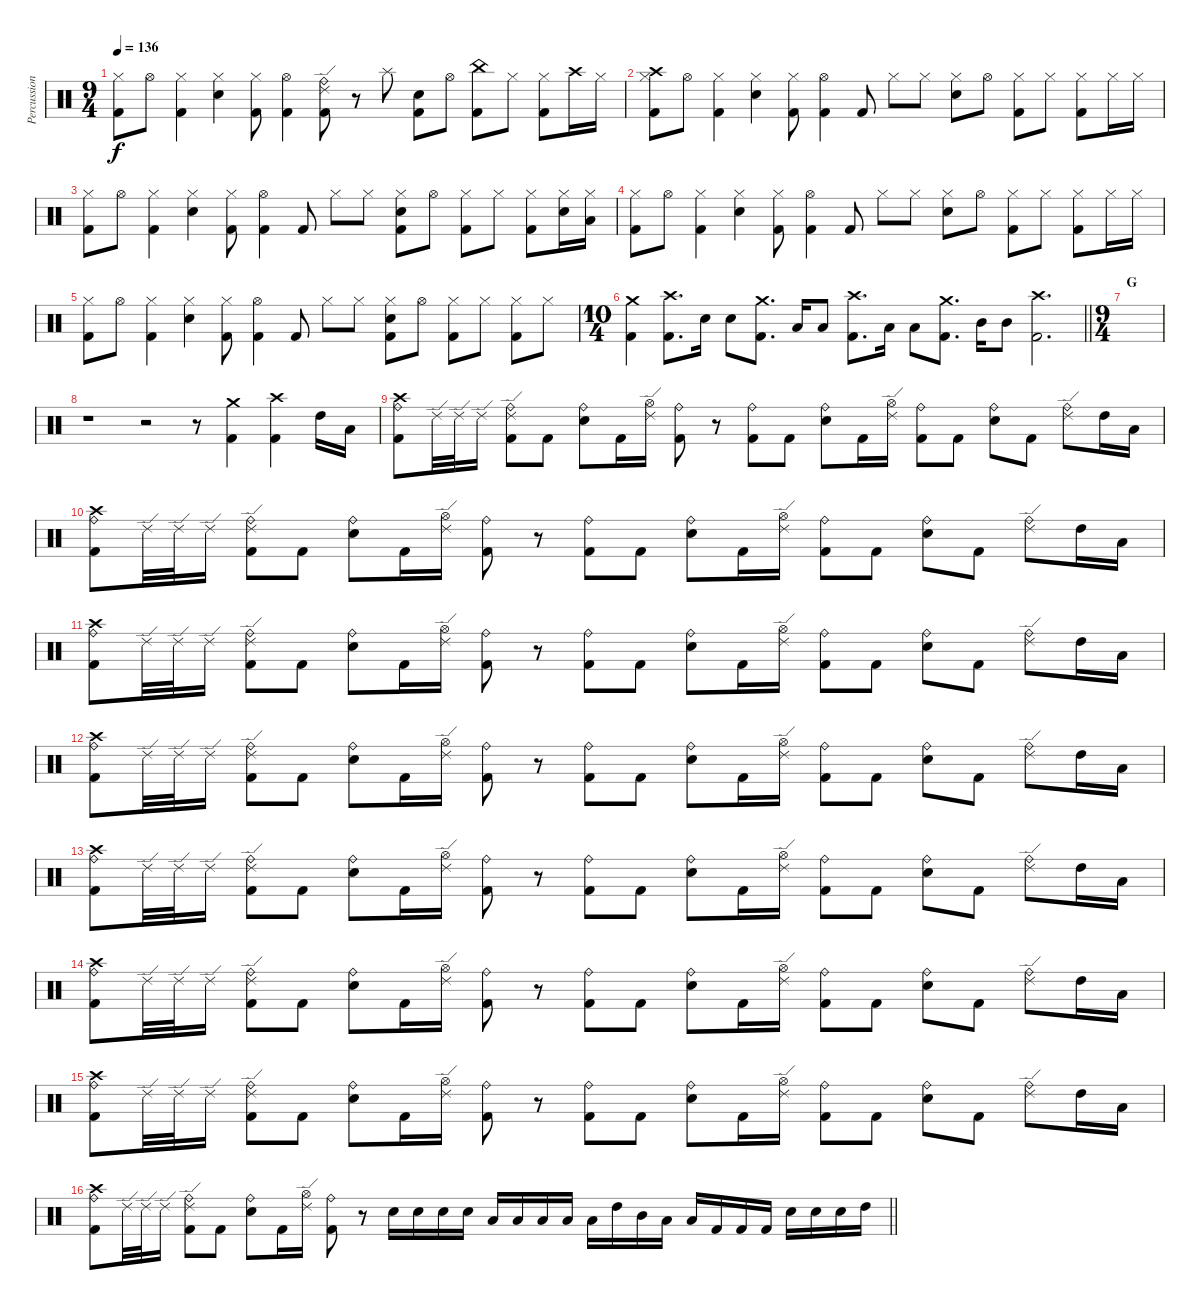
\track ("Percussions" "Percussion") {instrument percussion}
\staff {score}
\articulation defaults
\ts (9 4)
\tempo 136
\clef neutral
\ks c
("Hi-Hat (closed)" "Kick (hit) 2").8{dy f} "Hi-Hat (open)".8 ("Hi-Hat (closed)" "Kick (hit) 2").4 ("Hi-Hat (closed)" "Snare (hit) 2").4 ("Hi-Hat (closed)" "Kick (hit) 2").8 ("Hi-Hat (open)" "Kick (hit) 2").4 ("Ride (edge) 2" "Ride (bell)" "Kick (hit) 2").8 r.8 "Splash (hit)".8 ("Snare (hit) 2" "Kick (hit) 2").8 "Hi-Hat (open)".8 ("China (hit)" "Kick (hit) 2").8 "Hi-Hat (closed)".8 ("Hi-Hat (closed)" "Kick (hit) 2").8 "Crash high (hit)".16 "Hi-Hat (closed)".16 |
("Crash high (hit)" "Hi-Hat (closed)" "Kick (hit) 2").8 "Hi-Hat (open)".8 ("Hi-Hat (closed)" "Kick (hit) 2").4 ("Hi-Hat (closed)" "Snare (hit) 2").4 ("Hi-Hat (closed)" "Kick (hit) 2").8 ("Hi-Hat (open)" "Kick (hit) 2").4 "Kick (hit) 2".8 "Hi-Hat (closed)".8 "Hi-Hat (closed)".8 ("Hi-Hat (closed)" "Snare (hit) 2").8 "Hi-Hat (open)".8 ("Hi-Hat (closed)" "Kick (hit) 2").8 "Hi-Hat (closed)".8 ("Hi-Hat (closed)" "Kick (hit) 2").8 "Hi-Hat (closed)".16 "Hi-Hat (closed)".16 |
("Hi-Hat (closed)" "Kick (hit) 2").8 "Hi-Hat (open)".8 ("Hi-Hat (closed)" "Kick (hit) 2").4 ("Hi-Hat (closed)" "Snare (hit) 2").4 ("Hi-Hat (closed)" "Kick (hit) 2").8 ("Hi-Hat (open)" "Kick (hit) 2").4 "Kick (hit) 2".8 "Hi-Hat (closed)".8 "Hi-Hat (closed)".8 ("Hi-Hat (closed)" "Snare (hit) 2" "Kick (hit) 2").8 "Hi-Hat (open)".8 ("Hi-Hat (closed)" "Kick (hit) 2").8 "Hi-Hat (closed)".8 ("Hi-Hat (closed)" "Kick (hit) 2").8 ("Hi-Hat (closed)" "Snare (hit) 2").16 ("Hi-Hat (closed)" "Low Tom (hit)").16 |
("Hi-Hat (closed)" "Kick (hit) 2").8 "Hi-Hat (open)".8 ("Hi-Hat (closed)" "Kick (hit) 2").4 ("Hi-Hat (closed)" "Snare (hit) 2").4 ("Hi-Hat (closed)" "Kick (hit) 2").8 ("Hi-Hat (open)" "Kick (hit) 2").4 "Kick (hit) 2".8 "Hi-Hat (closed)".8 "Hi-Hat (closed)".8 ("Hi-Hat (closed)" "Snare (hit) 2").8 "Hi-Hat (open)".8 ("Hi-Hat (closed)" "Kick (hit) 2").8 "Hi-Hat (closed)".8 ("Hi-Hat (closed)" "Kick (hit) 2").8 "Hi-Hat (closed)".16 "Hi-Hat (closed)".16 |
("Hi-Hat (closed)" "Kick (hit) 2").8 "Hi-Hat (open)".8 ("Hi-Hat (closed)" "Kick (hit) 2").4 ("Hi-Hat (closed)" "Snare (hit) 2").4 ("Hi-Hat (closed)" "Kick (hit) 2").8 ("Hi-Hat (open)" "Kick (hit) 2").4 "Kick (hit) 2".8 "Hi-Hat (closed)".8 "Hi-Hat (closed)".8 ("Hi-Hat (closed)" "Snare (hit) 2" "Kick (hit) 2").8 "Hi-Hat (open)".8 ("Hi-Hat (closed)" "Kick (hit) 2").8 "Hi-Hat (closed)".8 ("Hi-Hat (closed)" "Kick (hit) 2").8 "Hi-Hat (closed)".8 |
\ts (10 4)
\barLineRight lightlight
("Crash medium (hit)" "Kick (hit) 2").4 ("Crash high (hit)" "Kick (hit) 2").8{d} "Snare (hit) 2".16 "Snare (hit) 2".8 ("Crash medium (hit)" "Kick (hit) 2").8{d} "Low Tom (hit)".16 "Low Tom (hit)".8 ("Crash high (hit)" "Kick (hit) 2").8{d} "Low Tom (hit)".16 "Low Floor Tom (hit)".8 ("Crash medium (hit)" "Kick (hit) 2").8{d} "Mid Tom (hit)".16 "Mid Tom (hit)".8 ("Crash high (hit)" "Kick (hit) 2").2{d} |
\ts (9 4)
\section ("" "G")
|
r.1 r.2 r.8 ("Crash medium (hit)" "Kick (hit) 2").4 ("Crash high (hit)" "Kick (hit) 2").4 "High Tom (hit)".16 "Low Tom (hit)".16 |
("Crash high (hit)" "Ride (bell)" "Kick (hit) 2").8 "Ride (edge) 2".32 "Ride (edge) 2".32 "Ride (edge) 2".16 ("Ride (bell)" "Ride (edge) 2" "Kick (hit) 2").8 "Kick (hit) 2".8 ("Ride (bell)" "Snare (hit) 2").8 "Kick (hit) 2".16 ("Ride (edge) 2" "Hi-Hat (open)").16 ("Ride (bell)" "Kick (hit) 2").8 r.8 ("Ride (bell)" "Kick (hit) 2").8 "Kick (hit) 2".8 ("Ride (bell)" "Snare (hit) 2").8 "Kick (hit) 2".16 ("Ride (edge) 2" "Hi-Hat (open)").16 ("Ride (bell)" "Kick (hit) 2").8 "Kick (hit) 2".8 ("Ride (bell)" "Snare (hit) 2").8 "Kick (hit) 2".8 ("Ride (bell)" "Ride (edge) 2").8 "High Tom (hit)".16 "Low Tom (hit)".16 |
("Crash high (hit)" "Ride (bell)" "Kick (hit) 2").8 "Ride (edge) 2".32 "Ride (edge) 2".32 "Ride (edge) 2".16 ("Ride (bell)" "Ride (edge) 2" "Kick (hit) 2").8 "Kick (hit) 2".8 ("Ride (bell)" "Snare (hit) 2").8 "Kick (hit) 2".16 ("Ride (edge) 2" "Hi-Hat (open)").16 ("Ride (bell)" "Kick (hit) 2").8 r.8 ("Ride (bell)" "Kick (hit) 2").8 "Kick (hit) 2".8 ("Ride (bell)" "Snare (hit) 2").8 "Kick (hit) 2".16 ("Ride (edge) 2" "Hi-Hat (open)").16 ("Ride (bell)" "Kick (hit) 2").8 "Kick (hit) 2".8 ("Ride (bell)" "Snare (hit) 2").8 "Kick (hit) 2".8 ("Ride (bell)" "Ride (edge) 2").8 "High Tom (hit)".16 "Low Tom (hit)".16 |
("Crash high (hit)" "Ride (bell)" "Kick (hit) 2").8 "Ride (edge) 2".32 "Ride (edge) 2".32 "Ride (edge) 2".16 ("Ride (bell)" "Ride (edge) 2" "Kick (hit) 2").8 "Kick (hit) 2".8 ("Ride (bell)" "Snare (hit) 2").8 "Kick (hit) 2".16 ("Ride (edge) 2" "Hi-Hat (open)").16 ("Ride (bell)" "Kick (hit) 2").8 r.8 ("Ride (bell)" "Kick (hit) 2").8 "Kick (hit) 2".8 ("Ride (bell)" "Snare (hit) 2").8 "Kick (hit) 2".16 ("Ride (edge) 2" "Hi-Hat (open)").16 ("Ride (bell)" "Kick (hit) 2").8 "Kick (hit) 2".8 ("Ride (bell)" "Snare (hit) 2").8 "Kick (hit) 2".8 ("Ride (bell)" "Ride (edge) 2").8 "High Tom (hit)".16 "Low Tom (hit)".16 |
("Crash high (hit)" "Ride (bell)" "Kick (hit) 2").8 "Ride (edge) 2".32 "Ride (edge) 2".32 "Ride (edge) 2".16 ("Ride (bell)" "Ride (edge) 2" "Kick (hit) 2").8 "Kick (hit) 2".8 ("Ride (bell)" "Snare (hit) 2").8 "Kick (hit) 2".16 ("Ride (edge) 2" "Hi-Hat (open)").16 ("Ride (bell)" "Kick (hit) 2").8 r.8 ("Ride (bell)" "Kick (hit) 2").8 "Kick (hit) 2".8 ("Ride (bell)" "Snare (hit) 2").8 "Kick (hit) 2".16 ("Ride (edge) 2" "Hi-Hat (open)").16 ("Ride (bell)" "Kick (hit) 2").8 "Kick (hit) 2".8 ("Ride (bell)" "Snare (hit) 2").8 "Kick (hit) 2".8 ("Ride (bell)" "Ride (edge) 2").8 "High Tom (hit)".16 "Low Tom (hit)".16 |
("Crash high (hit)" "Ride (bell)" "Kick (hit) 2").8 "Ride (edge) 2".32 "Ride (edge) 2".32 "Ride (edge) 2".16 ("Ride (bell)" "Ride (edge) 2" "Kick (hit) 2").8 "Kick (hit) 2".8 ("Ride (bell)" "Snare (hit) 2").8 "Kick (hit) 2".16 ("Ride (edge) 2" "Hi-Hat (open)").16 ("Ride (bell)" "Kick (hit) 2").8 r.8 ("Ride (bell)" "Kick (hit) 2").8 "Kick (hit) 2".8 ("Ride (bell)" "Snare (hit) 2").8 "Kick (hit) 2".16 ("Ride (edge) 2" "Hi-Hat (open)").16 ("Ride (bell)" "Kick (hit) 2").8 "Kick (hit) 2".8 ("Ride (bell)" "Snare (hit) 2").8 "Kick (hit) 2".8 ("Ride (bell)" "Ride (edge) 2").8 "High Tom (hit)".16 "Low Tom (hit)".16 |
("Crash high (hit)" "Ride (bell)" "Kick (hit) 2").8 "Ride (edge) 2".32 "Ride (edge) 2".32 "Ride (edge) 2".16 ("Ride (bell)" "Ride (edge) 2" "Kick (hit) 2").8 "Kick (hit) 2".8 ("Ride (bell)" "Snare (hit) 2").8 "Kick (hit) 2".16 ("Ride (edge) 2" "Hi-Hat (open)").16 ("Ride (bell)" "Kick (hit) 2").8 r.8 ("Ride (bell)" "Kick (hit) 2").8 "Kick (hit) 2".8 ("Ride (bell)" "Snare (hit) 2").8 "Kick (hit) 2".16 ("Ride (edge) 2" "Hi-Hat (open)").16 ("Ride (bell)" "Kick (hit) 2").8 "Kick (hit) 2".8 ("Ride (bell)" "Snare (hit) 2").8 "Kick (hit) 2".8 ("Ride (bell)" "Ride (edge) 2").8 "High Tom (hit)".16 "Low Tom (hit)".16 |
("Crash high (hit)" "Ride (bell)" "Kick (hit) 2").8 "Ride (edge) 2".32 "Ride (edge) 2".32 "Ride (edge) 2".16 ("Ride (bell)" "Ride (edge) 2" "Kick (hit) 2").8 "Kick (hit) 2".8 ("Ride (bell)" "Snare (hit) 2").8 "Kick (hit) 2".16 ("Ride (edge) 2" "Hi-Hat (open)").16 ("Ride (bell)" "Kick (hit) 2").8 r.8 ("Ride (bell)" "Kick (hit) 2").8 "Kick (hit) 2".8 ("Ride (bell)" "Snare (hit) 2").8 "Kick (hit) 2".16 ("Ride (edge) 2" "Hi-Hat (open)").16 ("Ride (bell)" "Kick (hit) 2").8 "Kick (hit) 2".8 ("Ride (bell)" "Snare (hit) 2").8 "Kick (hit) 2".8 ("Ride (bell)" "Ride (edge) 2").8 "High Tom (hit)".16 "Low Tom (hit)".16 |
\barLineRight lightlight
("Crash high (hit)" "Ride (bell)" "Kick (hit) 2").8 "Ride (edge) 2".32 "Ride (edge) 2".32 "Ride (edge) 2".16 ("Ride (bell)" "Ride (edge) 2" "Kick (hit) 2").8 "Kick (hit) 2".8 ("Ride (bell)" "Snare (hit) 2").8 "Kick (hit) 2".16 ("Ride (edge) 2" "Hi-Hat (open)").16 ("Ride (bell)" "Kick (hit) 2").8 r.8 "Snare (hit) 2".16 "Snare (hit) 2".16 "Snare (hit) 2".16 "Snare (hit) 2".16 "Low Tom (hit)".16 "Low Tom (hit)".16 "Low Tom (hit)".16 "Low Floor Tom (hit)".16 "Low Floor Tom (hit)".16 "High Tom (hit)".16 "Mid Tom (hit)".16 "Low Tom (hit)".16 "Low Floor Tom (hit)".16 "Kick (hit) 2".16 "Kick (hit) 2".16 "Kick (hit) 2".16 "Snare (hit) 2".16 "Snare (hit) 2".16 "Snare (hit) 2".16 "High Tom (hit)".16
